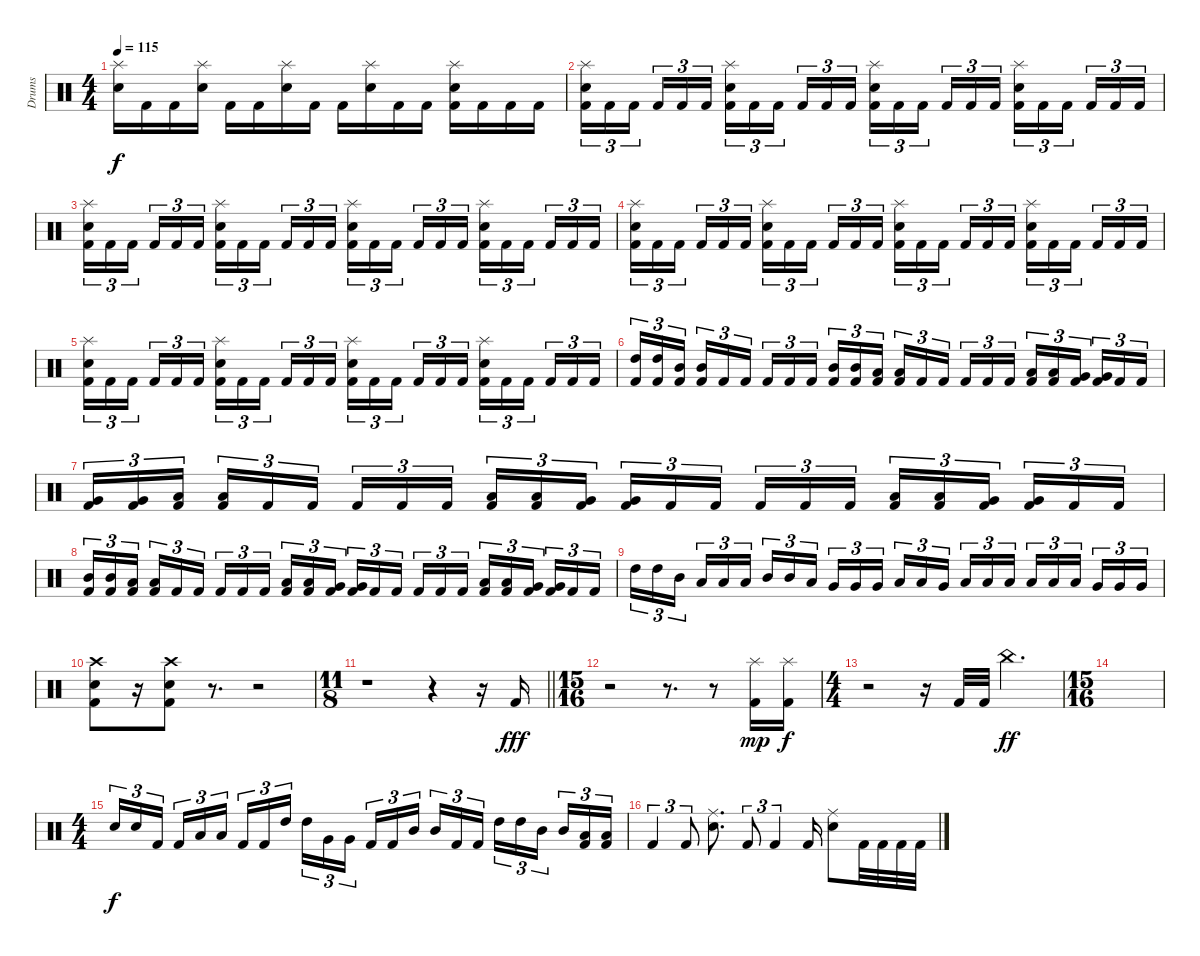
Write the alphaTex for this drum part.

\track ("Drums" "Drums") {instrument percussion}
\staff {score}
\articulation defaults
\ts (4 4)
\tempo 115
\clef neutral
\ks c
("Splash (hit)" "Snare (hit) 2").16{dy f} "Kick (hit) 2".16 "Kick (hit) 2".16 ("Splash (hit)" "Snare (hit) 2").16 "Kick (hit) 2".16 "Kick (hit) 2".16 ("Splash (hit)" "Snare (hit) 2").16 "Kick (hit) 2".16 "Kick (hit) 2".16 ("Splash (hit)" "Snare (hit) 2").16 "Kick (hit) 2".16 "Kick (hit) 2".16 ("Splash (hit)" "Snare (hit) 2" "Kick (hit) 2").16 "Kick (hit) 2".16 "Kick (hit) 2".16 "Kick (hit) 2".16 |
("Splash (hit)" "Snare (hit) 2" "Kick (hit) 2").16{tu (3 2)} "Kick (hit) 2".16{tu (3 2)} "Kick (hit) 2".16{tu (3 2) beam splitsecondary} "Kick (hit) 2".16{tu (3 2)} "Kick (hit) 2".16{tu (3 2)} "Kick (hit) 2".16{tu (3 2)} ("Splash (hit)" "Snare (hit) 2" "Kick (hit) 2").16{tu (3 2)} "Kick (hit) 2".16{tu (3 2)} "Kick (hit) 2".16{tu (3 2) beam splitsecondary} "Kick (hit) 2".16{tu (3 2)} "Kick (hit) 2".16{tu (3 2)} "Kick (hit) 2".16{tu (3 2)} ("Splash (hit)" "Snare (hit) 2" "Kick (hit) 2").16{tu (3 2)} "Kick (hit) 2".16{tu (3 2)} "Kick (hit) 2".16{tu (3 2) beam splitsecondary} "Kick (hit) 2".16{tu (3 2)} "Kick (hit) 2".16{tu (3 2)} "Kick (hit) 2".16{tu (3 2)} ("Splash (hit)" "Snare (hit) 2" "Kick (hit) 2").16{tu (3 2)} "Kick (hit) 2".16{tu (3 2)} "Kick (hit) 2".16{tu (3 2) beam splitsecondary} "Kick (hit) 2".16{tu (3 2)} "Kick (hit) 2".16{tu (3 2)} "Kick (hit) 2".16{tu (3 2)} |
("Splash (hit)" "Snare (hit) 2" "Kick (hit) 2").16{tu (3 2)} "Kick (hit) 2".16{tu (3 2)} "Kick (hit) 2".16{tu (3 2) beam splitsecondary} "Kick (hit) 2".16{tu (3 2)} "Kick (hit) 2".16{tu (3 2)} "Kick (hit) 2".16{tu (3 2)} ("Splash (hit)" "Snare (hit) 2" "Kick (hit) 2").16{tu (3 2)} "Kick (hit) 2".16{tu (3 2)} "Kick (hit) 2".16{tu (3 2) beam splitsecondary} "Kick (hit) 2".16{tu (3 2)} "Kick (hit) 2".16{tu (3 2)} "Kick (hit) 2".16{tu (3 2)} ("Splash (hit)" "Snare (hit) 2" "Kick (hit) 2").16{tu (3 2)} "Kick (hit) 2".16{tu (3 2)} "Kick (hit) 2".16{tu (3 2) beam splitsecondary} "Kick (hit) 2".16{tu (3 2)} "Kick (hit) 2".16{tu (3 2)} "Kick (hit) 2".16{tu (3 2)} ("Splash (hit)" "Snare (hit) 2" "Kick (hit) 2").16{tu (3 2)} "Kick (hit) 2".16{tu (3 2)} "Kick (hit) 2".16{tu (3 2) beam splitsecondary} "Kick (hit) 2".16{tu (3 2)} "Kick (hit) 2".16{tu (3 2)} "Kick (hit) 2".16{tu (3 2)} |
("Splash (hit)" "Snare (hit) 2" "Kick (hit) 2").16{tu (3 2)} "Kick (hit) 2".16{tu (3 2)} "Kick (hit) 2".16{tu (3 2) beam splitsecondary} "Kick (hit) 2".16{tu (3 2)} "Kick (hit) 2".16{tu (3 2)} "Kick (hit) 2".16{tu (3 2)} ("Splash (hit)" "Snare (hit) 2" "Kick (hit) 2").16{tu (3 2)} "Kick (hit) 2".16{tu (3 2)} "Kick (hit) 2".16{tu (3 2) beam splitsecondary} "Kick (hit) 2".16{tu (3 2)} "Kick (hit) 2".16{tu (3 2)} "Kick (hit) 2".16{tu (3 2)} ("Splash (hit)" "Snare (hit) 2" "Kick (hit) 2").16{tu (3 2)} "Kick (hit) 2".16{tu (3 2)} "Kick (hit) 2".16{tu (3 2) beam splitsecondary} "Kick (hit) 2".16{tu (3 2)} "Kick (hit) 2".16{tu (3 2)} "Kick (hit) 2".16{tu (3 2)} ("Splash (hit)" "Snare (hit) 2" "Kick (hit) 2").16{tu (3 2)} "Kick (hit) 2".16{tu (3 2)} "Kick (hit) 2".16{tu (3 2) beam splitsecondary} "Kick (hit) 2".16{tu (3 2)} "Kick (hit) 2".16{tu (3 2)} "Kick (hit) 2".16{tu (3 2)} |
("Splash (hit)" "Snare (hit) 2" "Kick (hit) 2").16{tu (3 2)} "Kick (hit) 2".16{tu (3 2)} "Kick (hit) 2".16{tu (3 2) beam splitsecondary} "Kick (hit) 2".16{tu (3 2)} "Kick (hit) 2".16{tu (3 2)} "Kick (hit) 2".16{tu (3 2)} ("Splash (hit)" "Snare (hit) 2" "Kick (hit) 2").16{tu (3 2)} "Kick (hit) 2".16{tu (3 2)} "Kick (hit) 2".16{tu (3 2) beam splitsecondary} "Kick (hit) 2".16{tu (3 2)} "Kick (hit) 2".16{tu (3 2)} "Kick (hit) 2".16{tu (3 2)} ("Splash (hit)" "Snare (hit) 2" "Kick (hit) 2").16{tu (3 2)} "Kick (hit) 2".16{tu (3 2)} "Kick (hit) 2".16{tu (3 2) beam splitsecondary} "Kick (hit) 2".16{tu (3 2)} "Kick (hit) 2".16{tu (3 2)} "Kick (hit) 2".16{tu (3 2)} ("Splash (hit)" "Snare (hit) 2" "Kick (hit) 2").16{tu (3 2)} "Kick (hit) 2".16{tu (3 2)} "Kick (hit) 2".16{tu (3 2) beam splitsecondary} "Kick (hit) 2".16{tu (3 2)} "Kick (hit) 2".16{tu (3 2)} "Kick (hit) 2".16{tu (3 2)} |
("High Tom (hit)" "Kick (hit) 2").16{tu (3 2)} ("High Tom (hit)" "Kick (hit) 2").16{tu (3 2)} ("Mid Tom (hit)" "Kick (hit) 2").16{tu (3 2) beam splitsecondary} ("Mid Tom (hit)" "Kick (hit) 2").16{tu (3 2)} "Kick (hit) 2".16{tu (3 2)} "Kick (hit) 2".16{tu (3 2)} "Kick (hit) 2".16{tu (3 2)} "Kick (hit) 2".16{tu (3 2)} "Kick (hit) 2".16{tu (3 2) beam splitsecondary} ("Mid Tom (hit)" "Kick (hit) 2").16{tu (3 2)} ("Mid Tom (hit)" "Kick (hit) 2").16{tu (3 2)} ("Low Tom (hit)" "Kick (hit) 2").16{tu (3 2)} ("Low Tom (hit)" "Kick (hit) 2").16{tu (3 2)} "Kick (hit) 2".16{tu (3 2)} "Kick (hit) 2".16{tu (3 2) beam splitsecondary} "Kick (hit) 2".16{tu (3 2)} "Kick (hit) 2".16{tu (3 2)} "Kick (hit) 2".16{tu (3 2)} ("Low Tom (hit)" "Kick (hit) 2").16{tu (3 2)} ("Low Tom (hit)" "Kick (hit) 2").16{tu (3 2)} ("Very Low Tom (hit)" "Kick (hit) 2").16{tu (3 2) beam splitsecondary} ("Very Low Tom (hit)" "Kick (hit) 2").16{tu (3 2)} "Kick (hit) 2".16{tu (3 2)} "Kick (hit) 2".16{tu (3 2)} |
("Very Low Tom (hit)" "Kick (hit) 2").16{tu (3 2)} ("Very Low Tom (hit)" "Kick (hit) 2").16{tu (3 2)} ("Low Floor Tom (hit)" "Kick (hit) 2").16{tu (3 2) beam splitsecondary} ("Low Floor Tom (hit)" "Kick (hit) 2").16{tu (3 2)} "Kick (hit) 2".16{tu (3 2)} "Kick (hit) 2".16{tu (3 2)} "Kick (hit) 2".16{tu (3 2)} "Kick (hit) 2".16{tu (3 2)} "Kick (hit) 2".16{tu (3 2) beam splitsecondary} ("Low Tom (hit)" "Kick (hit) 2").16{tu (3 2)} ("Low Tom (hit)" "Kick (hit) 2").16{tu (3 2)} ("Very Low Tom (hit)" "Kick (hit) 2").16{tu (3 2)} ("Very Low Tom (hit)" "Kick (hit) 2").16{tu (3 2)} "Kick (hit) 2".16{tu (3 2)} "Kick (hit) 2".16{tu (3 2) beam splitsecondary} "Kick (hit) 2".16{tu (3 2)} "Kick (hit) 2".16{tu (3 2)} "Kick (hit) 2".16{tu (3 2)} ("Low Tom (hit)" "Kick (hit) 2").16{tu (3 2)} ("Low Tom (hit)" "Kick (hit) 2").16{tu (3 2)} ("Very Low Tom (hit)" "Kick (hit) 2").16{tu (3 2) beam splitsecondary} ("Very Low Tom (hit)" "Kick (hit) 2").16{tu (3 2)} "Kick (hit) 2".16{tu (3 2)} "Kick (hit) 2".16{tu (3 2)} |
("Mid Tom (hit)" "Kick (hit) 2").16{tu (3 2)} ("Mid Tom (hit)" "Kick (hit) 2").16{tu (3 2)} ("Low Tom (hit)" "Kick (hit) 2").16{tu (3 2) beam splitsecondary} ("Low Tom (hit)" "Kick (hit) 2").16{tu (3 2)} "Kick (hit) 2".16{tu (3 2)} "Kick (hit) 2".16{tu (3 2)} "Kick (hit) 2".16{tu (3 2)} "Kick (hit) 2".16{tu (3 2)} "Kick (hit) 2".16{tu (3 2) beam splitsecondary} ("Low Tom (hit)" "Kick (hit) 2").16{tu (3 2)} ("Low Tom (hit)" "Kick (hit) 2").16{tu (3 2)} ("Very Low Tom (hit)" "Kick (hit) 2").16{tu (3 2)} ("Very Low Tom (hit)" "Kick (hit) 2").16{tu (3 2)} "Kick (hit) 2".16{tu (3 2)} "Kick (hit) 2".16{tu (3 2) beam splitsecondary} "Kick (hit) 2".16{tu (3 2)} "Kick (hit) 2".16{tu (3 2)} "Kick (hit) 2".16{tu (3 2)} ("Low Tom (hit)" "Kick (hit) 2").16{tu (3 2)} ("Low Tom (hit)" "Kick (hit) 2").16{tu (3 2)} ("Very Low Tom (hit)" "Kick (hit) 2").16{tu (3 2) beam splitsecondary} ("Very Low Tom (hit)" "Kick (hit) 2").16{tu (3 2)} "Kick (hit) 2".16{tu (3 2)} "Kick (hit) 2".16{tu (3 2)} |
"High Tom (hit)".16{tu (3 2)} "High Tom (hit)".16{tu (3 2)} "Mid Tom (hit)".16{tu (3 2) beam splitsecondary} "Low Tom (hit)".16{tu (3 2)} "Low Tom (hit)".16{tu (3 2)} "Low Tom (hit)".16{tu (3 2)} "Mid Tom (hit)".16{tu (3 2)} "Mid Tom (hit)".16{tu (3 2)} "Low Tom (hit)".16{tu (3 2) beam splitsecondary} "Very Low Tom (hit)".16{tu (3 2)} "Very Low Tom (hit)".16{tu (3 2)} "Very Low Tom (hit)".16{tu (3 2)} "Low Tom (hit)".16{tu (3 2)} "Low Tom (hit)".16{tu (3 2)} "Very Low Tom (hit)".16{tu (3 2) beam splitsecondary} "Low Floor Tom (hit)".16{tu (3 2)} "Low Floor Tom (hit)".16{tu (3 2)} "Low Floor Tom (hit)".16{tu (3 2)} "Low Tom (hit)".16{tu (3 2)} "Low Tom (hit)".16{tu (3 2)} "Low Tom (hit)".16{tu (3 2) beam splitsecondary} "Very Low Tom (hit)".16{tu (3 2)} "Very Low Tom (hit)".16{tu (3 2)} "Very Low Tom (hit)".16{tu (3 2)} |
("Crash high (hit)" "Snare (hit) 2" "Kick (hit) 2").8 r.16 ("Crash high (hit)" "Snare (hit) 2" "Kick (hit) 2").8 r.8{d} r.2 |
\ts (11 8)
\barLineRight lightlight
r.1 r.4 r.16 "Kick (hit) 2".16{dy fff} |
\ts (15 16)
\section ("" "")
r.2 r.8{d} r.8 ("Splash (hit)" "Kick (hit) 2").16{dy mp} ("Splash (hit)" "Kick (hit) 2").16{dy f} |
\ts (4 4)
r.2 r.16 "Kick (hit) 2".32 "Kick (hit) 2".32 "China (hit)".4{d dy ff} |
\ts (15 16)
|
\ts (4 4)
"Snare (hit) 2".16{tu (3 2) dy f} "Snare (hit) 2".16{tu (3 2)} "Kick (hit) 2".16{tu (3 2) beam splitsecondary} "Kick (hit) 2".16{tu (3 2)} "Low Tom (hit)".16{tu (3 2)} "Low Tom (hit)".16{tu (3 2)} "Kick (hit) 2".16{tu (3 2)} "Kick (hit) 2".16{tu (3 2)} "High Tom (hit)".16{tu (3 2) beam splitsecondary} "High Tom (hit)".16{tu (3 2)} "Very Low Tom (hit)".16{tu (3 2)} "Very Low Tom (hit)".16{tu (3 2)} "Kick (hit) 2".16{tu (3 2)} "Kick (hit) 2".16{tu (3 2)} "Mid Tom (hit)".16{tu (3 2) beam splitsecondary} "Mid Tom (hit)".16{tu (3 2)} "Kick (hit) 2".16{tu (3 2)} "Kick (hit) 2".16{tu (3 2)} "High Tom (hit)".16{tu (3 2)} "High Tom (hit)".16{tu (3 2)} "Mid Tom (hit)".16{tu (3 2) beam splitsecondary} "Mid Tom (hit)".16{tu (3 2)} ("Low Tom (hit)" "Kick (hit) 2").16{tu (3 2)} ("Low Tom (hit)" "Kick (hit) 2").16{tu (3 2)} |
"Kick (hit) 2".4{tu (3 2)} "Kick (hit) 2".8{tu (3 2)} ("Ride (middle)" "Snare (hit) 2").8{d} "Kick (hit) 2".8{tu (3 2)} "Kick (hit) 2".4{tu (3 2)} "Kick (hit) 2".16 ("Ride (middle)" "Snare (hit) 2").8 "Kick (hit) 2".32 "Kick (hit) 2".32 "Kick (hit) 2".32 "Kick (hit) 2".32
